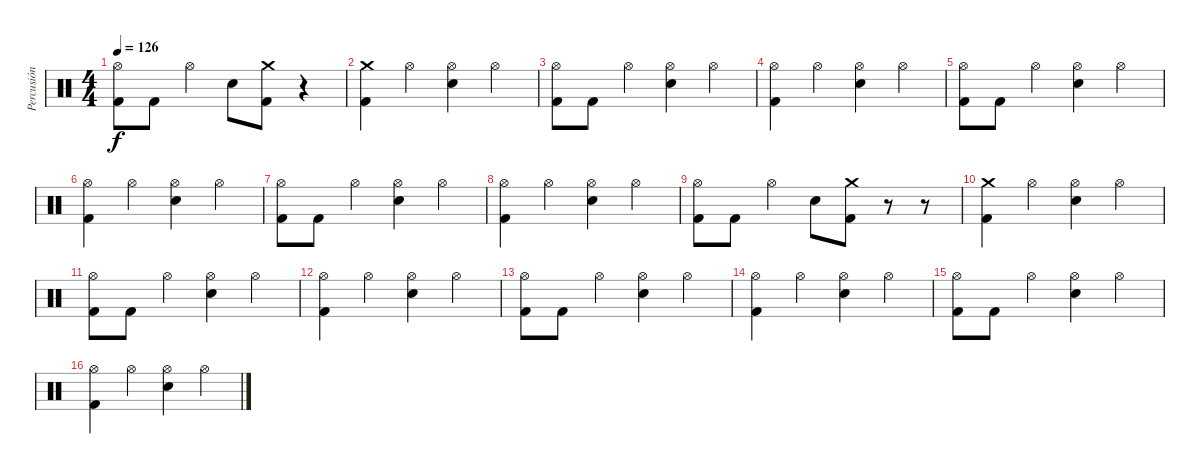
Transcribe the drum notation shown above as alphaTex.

\track ("Percusión" "Percusión") {instrument percussion}
\staff {score}
\articulation defaults
\ts (4 4)
\tempo 126
\clef neutral
\ks c
("Hi-Hat (open)" "Kick (hit) 2").8{dy f} "Kick (hit) 2".8 "Hi-Hat (open)".4 "Electric Snare (hit)".8 ("Crash medium (hit)" "Kick (hit) 2").8 r.4 |
("Crash medium (hit)" "Kick (hit) 2").4 "Hi-Hat (open)".4 ("Hi-Hat (open)" "Electric Snare (hit)").4 "Hi-Hat (open)".4 |
("Hi-Hat (open)" "Kick (hit) 2").8 "Kick (hit) 2".8 "Hi-Hat (open)".4 ("Hi-Hat (open)" "Electric Snare (hit)").4 "Hi-Hat (open)".4 |
("Hi-Hat (open)" "Kick (hit) 2").4 "Hi-Hat (open)".4 ("Hi-Hat (open)" "Electric Snare (hit)").4 "Hi-Hat (open)".4 |
("Hi-Hat (open)" "Kick (hit) 2").8 "Kick (hit) 2".8 "Hi-Hat (open)".4 ("Hi-Hat (open)" "Electric Snare (hit)").4 "Hi-Hat (open)".4 |
("Hi-Hat (open)" "Kick (hit) 2").4 "Hi-Hat (open)".4 ("Hi-Hat (open)" "Electric Snare (hit)").4 "Hi-Hat (open)".4 |
("Hi-Hat (open)" "Kick (hit) 2").8 "Kick (hit) 2".8 "Hi-Hat (open)".4 ("Hi-Hat (open)" "Electric Snare (hit)").4 "Hi-Hat (open)".4 |
("Hi-Hat (open)" "Kick (hit) 2").4 "Hi-Hat (open)".4 ("Hi-Hat (open)" "Electric Snare (hit)").4 "Hi-Hat (open)".4 |
("Hi-Hat (open)" "Kick (hit) 2").8 "Kick (hit) 2".8 "Hi-Hat (open)".4 "Electric Snare (hit)".8 ("Crash medium (hit)" "Kick (hit) 2").8 r.8{volume 0} r.8 |
("Crash medium (hit)" "Kick (hit) 2").4{volume 16} "Hi-Hat (open)".4 ("Hi-Hat (open)" "Electric Snare (hit)").4 "Hi-Hat (open)".4 |
("Hi-Hat (open)" "Kick (hit) 2").8 "Kick (hit) 2".8 "Hi-Hat (open)".4 ("Hi-Hat (open)" "Electric Snare (hit)").4 "Hi-Hat (open)".4 |
("Hi-Hat (open)" "Kick (hit) 2").4 "Hi-Hat (open)".4 ("Hi-Hat (open)" "Electric Snare (hit)").4 "Hi-Hat (open)".4 |
("Hi-Hat (open)" "Kick (hit) 2").8 "Kick (hit) 2".8 "Hi-Hat (open)".4 ("Hi-Hat (open)" "Electric Snare (hit)").4 "Hi-Hat (open)".4 |
("Hi-Hat (open)" "Kick (hit) 2").4 "Hi-Hat (open)".4 ("Hi-Hat (open)" "Electric Snare (hit)").4 "Hi-Hat (open)".4 |
("Hi-Hat (open)" "Kick (hit) 2").8 "Kick (hit) 2".8 "Hi-Hat (open)".4 ("Hi-Hat (open)" "Electric Snare (hit)").4 "Hi-Hat (open)".4 |
("Hi-Hat (open)" "Kick (hit) 2").4 "Hi-Hat (open)".4 ("Hi-Hat (open)" "Electric Snare (hit)").4 "Hi-Hat (open)".4
